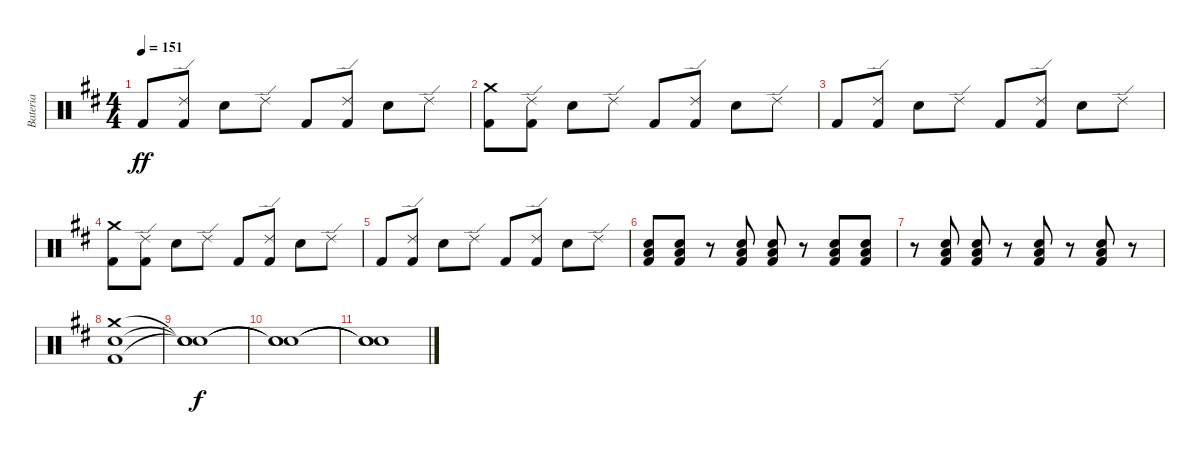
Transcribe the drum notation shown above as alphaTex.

\track ("Bateria " "Bateria ") {instrument percussion}
\staff {score}
\articulation defaults
\ts (4 4)
\tempo 151
\clef neutral
\ks d "Kick (hit) 2".8{dy ff}
("Ride (edge) 2" "Kick (hit) 2").8 "Electric Snare (hit)".8 "Ride (edge) 2".8 "Kick (hit) 2".8 ("Ride (edge) 2" "Kick (hit) 2").8 "Electric Snare (hit)".8 "Ride (edge) 2".8 |
("Crash medium (hit)" "Kick (hit) 2").8 ("Ride (edge) 2" "Kick (hit) 2").8 "Electric Snare (hit)".8 "Ride (edge) 2".8 "Kick (hit) 2".8 ("Ride (edge) 2" "Kick (hit) 2").8 "Electric Snare (hit)".8 "Ride (edge) 2".8 |
"Kick (hit) 2".8 ("Ride (edge) 2" "Kick (hit) 2").8 "Electric Snare (hit)".8 "Ride (edge) 2".8 "Kick (hit) 2".8 ("Ride (edge) 2" "Kick (hit) 2").8 "Electric Snare (hit)".8 "Ride (edge) 2".8 |
("Crash medium (hit)" "Kick (hit) 2").8 ("Ride (edge) 2" "Kick (hit) 2").8 "Electric Snare (hit)".8 "Ride (edge) 2".8 "Kick (hit) 2".8 ("Ride (edge) 2" "Kick (hit) 2").8 "Electric Snare (hit)".8 "Ride (edge) 2".8 |
"Kick (hit) 2".8 ("Ride (edge) 2" "Kick (hit) 2").8 "Electric Snare (hit)".8 "Ride (edge) 2".8 "Kick (hit) 2".8 ("Ride (edge) 2" "Kick (hit) 2").8 "Electric Snare (hit)".8 "Ride (edge) 2".8 |
("Electric Snare (hit)" "Low Floor Tom (hit)" "Kick (hit) 2").8 ("Electric Snare (hit)" "Low Floor Tom (hit)" "Kick (hit) 2").8 r.8 ("Electric Snare (hit)" "Low Floor Tom (hit)" "Kick (hit) 2").8 ("Electric Snare (hit)" "Low Floor Tom (hit)" "Kick (hit) 2").8 r.8 ("Electric Snare (hit)" "Low Floor Tom (hit)" "Kick (hit) 2").8 ("Electric Snare (hit)" "Low Floor Tom (hit)" "Kick (hit) 2").8 |
r.8 ("Electric Snare (hit)" "Low Floor Tom (hit)" "Kick (hit) 2").8 ("Electric Snare (hit)" "Low Floor Tom (hit)" "Kick (hit) 2").8 r.8 ("Electric Snare (hit)" "Low Floor Tom (hit)" "Kick (hit) 2").8 r.8 ("Electric Snare (hit)" "Low Floor Tom (hit)" "Kick (hit) 2").8 r.8 |
("Crash medium (hit)" "Electric Snare (hit)" "Kick (hit) 2").1 |
("Snare (hit)"{t} "Snare (hit)"{t} "Snare (hit)"{t}).1{dy f} |
("Snare (hit)"{t} "Snare (hit)"{t} "Snare (hit)"{t}).1 |
("Snare (hit)"{t} "Snare (hit)"{t} "Snare (hit)"{t}).1
